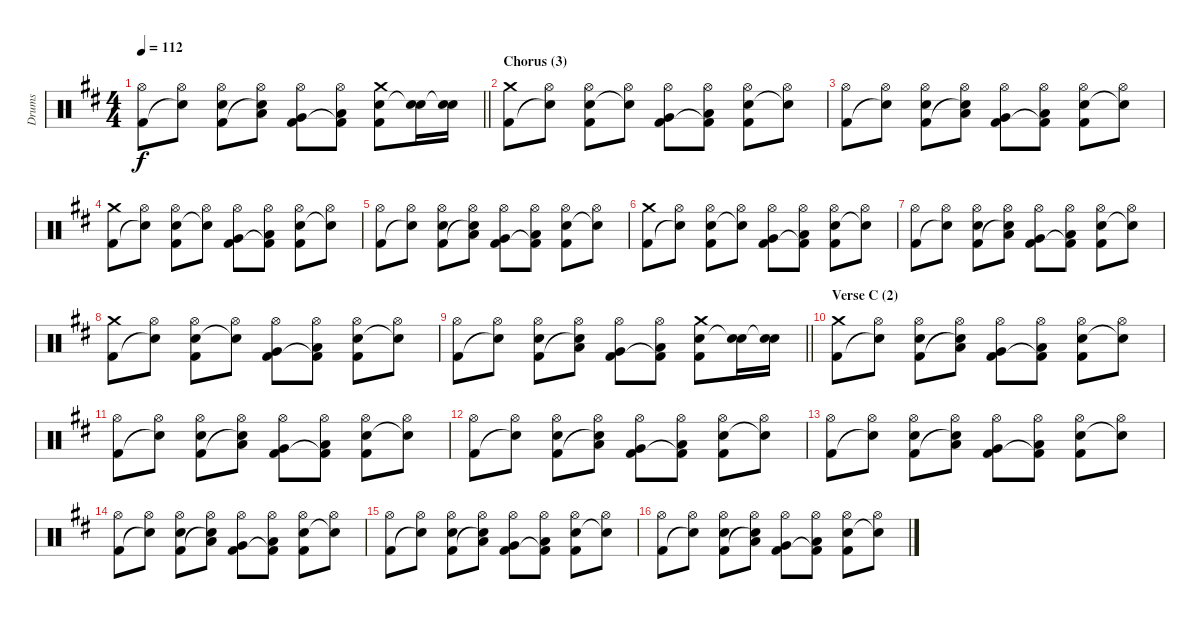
\track ("Drums" "Drums") {instrument percussion}
\staff {score}
\articulation defaults
\ts (4 4)
\tempo 112
\clef neutral
\barLineRight lightlight
\ks bminor
("Hi-Hat (open)" "Kick (hit) 2").8{dy f} ("Hi-Hat (open)" "Snare (hit)"{t}).8 ("Hi-Hat (open)" "Electric Snare (hit)" "Kick (hit) 2").8 ("Hi-Hat (open)" "Low Tom (hit)" "Snare (hit)"{t}).8 ("Hi-Hat (open)" "Very Low Tom (hit)" "Kick (hit) 2").8 ("Hi-Hat (open)" "Low Floor Tom (hit)" "Kick (hit) 2"{t}).8 ("Crash medium (hit)" "Electric Snare (hit)" "Kick (hit) 2").8 ("Electric Snare (hit)" "Snare (hit)"{t}).16 ("Electric Snare (hit)" "Snare (hit)"{t}).16 |
\section ("" "Chorus (3)")
("Crash medium (hit)" "Kick (hit) 2").8 ("Hi-Hat (open)" "Snare (hit)"{t}).8 ("Hi-Hat (open)" "Electric Snare (hit)" "Kick (hit) 2").8 ("Hi-Hat (open)" "Snare (hit)"{t}).8 ("Hi-Hat (open)" "Very Low Tom (hit)" "Kick (hit) 2").8 ("Hi-Hat (open)" "Low Floor Tom (hit)" "Kick (hit) 2"{t}).8 ("Hi-Hat (open)" "Electric Snare (hit)" "Kick (hit) 2").8 ("Hi-Hat (open)" "Snare (hit)"{t}).8 |
("Hi-Hat (open)" "Kick (hit) 2").8 ("Hi-Hat (open)" "Snare (hit)"{t}).8 ("Hi-Hat (open)" "Electric Snare (hit)" "Kick (hit) 2").8 ("Hi-Hat (open)" "Low Tom (hit)" "Snare (hit)"{t}).8 ("Hi-Hat (open)" "Very Low Tom (hit)" "Kick (hit) 2").8 ("Hi-Hat (open)" "Low Floor Tom (hit)" "Kick (hit) 2"{t}).8 ("Hi-Hat (open)" "Electric Snare (hit)" "Kick (hit) 2").8 ("Hi-Hat (open)" "Snare (hit)"{t}).8 |
("Crash medium (hit)" "Kick (hit) 2").8 ("Hi-Hat (open)" "Snare (hit)"{t}).8 ("Hi-Hat (open)" "Electric Snare (hit)" "Kick (hit) 2").8 ("Hi-Hat (open)" "Snare (hit)"{t}).8 ("Hi-Hat (open)" "Very Low Tom (hit)" "Kick (hit) 2").8 ("Hi-Hat (open)" "Low Floor Tom (hit)" "Kick (hit) 2"{t}).8 ("Hi-Hat (open)" "Electric Snare (hit)" "Kick (hit) 2").8 ("Hi-Hat (open)" "Snare (hit)"{t}).8 |
("Hi-Hat (open)" "Kick (hit) 2").8 ("Hi-Hat (open)" "Snare (hit)"{t}).8 ("Hi-Hat (open)" "Electric Snare (hit)" "Kick (hit) 2").8 ("Hi-Hat (open)" "Low Tom (hit)" "Snare (hit)"{t}).8 ("Hi-Hat (open)" "Very Low Tom (hit)" "Kick (hit) 2").8 ("Hi-Hat (open)" "Low Floor Tom (hit)" "Kick (hit) 2"{t}).8 ("Hi-Hat (open)" "Electric Snare (hit)" "Kick (hit) 2").8 ("Hi-Hat (open)" "Snare (hit)"{t}).8 |
("Crash medium (hit)" "Kick (hit) 2").8 ("Hi-Hat (open)" "Snare (hit)"{t}).8 ("Hi-Hat (open)" "Electric Snare (hit)" "Kick (hit) 2").8 ("Hi-Hat (open)" "Snare (hit)"{t}).8 ("Hi-Hat (open)" "Very Low Tom (hit)" "Kick (hit) 2").8 ("Hi-Hat (open)" "Low Floor Tom (hit)" "Kick (hit) 2"{t}).8 ("Hi-Hat (open)" "Electric Snare (hit)" "Kick (hit) 2").8 ("Hi-Hat (open)" "Snare (hit)"{t}).8 |
("Hi-Hat (open)" "Kick (hit) 2").8 ("Hi-Hat (open)" "Snare (hit)"{t}).8 ("Hi-Hat (open)" "Electric Snare (hit)" "Kick (hit) 2").8 ("Hi-Hat (open)" "Low Tom (hit)" "Snare (hit)"{t}).8 ("Hi-Hat (open)" "Very Low Tom (hit)" "Kick (hit) 2").8 ("Hi-Hat (open)" "Low Floor Tom (hit)" "Kick (hit) 2"{t}).8 ("Hi-Hat (open)" "Electric Snare (hit)" "Kick (hit) 2").8 ("Hi-Hat (open)" "Snare (hit)"{t}).8 |
("Crash medium (hit)" "Kick (hit) 2").8 ("Hi-Hat (open)" "Snare (hit)"{t}).8 ("Hi-Hat (open)" "Electric Snare (hit)" "Kick (hit) 2").8 ("Hi-Hat (open)" "Snare (hit)"{t}).8 ("Hi-Hat (open)" "Very Low Tom (hit)" "Kick (hit) 2").8 ("Hi-Hat (open)" "Low Floor Tom (hit)" "Kick (hit) 2"{t}).8 ("Hi-Hat (open)" "Electric Snare (hit)" "Kick (hit) 2").8 ("Hi-Hat (open)" "Snare (hit)"{t}).8 |
\barLineRight lightlight
("Hi-Hat (open)" "Kick (hit) 2").8 ("Hi-Hat (open)" "Snare (hit)"{t}).8 ("Hi-Hat (open)" "Electric Snare (hit)" "Kick (hit) 2").8 ("Hi-Hat (open)" "Low Tom (hit)" "Snare (hit)"{t}).8 ("Hi-Hat (open)" "Very Low Tom (hit)" "Kick (hit) 2").8 ("Hi-Hat (open)" "Low Floor Tom (hit)" "Kick (hit) 2"{t}).8 ("Crash medium (hit)" "Electric Snare (hit)" "Kick (hit) 2").8 ("Electric Snare (hit)" "Snare (hit)"{t}).16 ("Electric Snare (hit)" "Snare (hit)"{t}).16 |
\section ("" "Verse C (2)")
("Crash medium (hit)" "Kick (hit) 2").8 ("Hi-Hat (open)" "Snare (hit)"{t}).8 ("Hi-Hat (open)" "Electric Snare (hit)" "Kick (hit) 2").8 ("Hi-Hat (open)" "Low Tom (hit)" "Snare (hit)"{t}).8 ("Hi-Hat (open)" "Very Low Tom (hit)" "Kick (hit) 2").8 ("Hi-Hat (open)" "Low Floor Tom (hit)" "Kick (hit) 2"{t}).8 ("Hi-Hat (open)" "Electric Snare (hit)" "Kick (hit) 2").8 ("Hi-Hat (open)" "Snare (hit)"{t}).8 |
("Hi-Hat (open)" "Kick (hit) 2").8 ("Hi-Hat (open)" "Snare (hit)"{t}).8 ("Hi-Hat (open)" "Electric Snare (hit)" "Kick (hit) 2").8 ("Hi-Hat (open)" "Low Tom (hit)" "Snare (hit)"{t}).8 ("Hi-Hat (open)" "Very Low Tom (hit)" "Kick (hit) 2").8 ("Hi-Hat (open)" "Low Floor Tom (hit)" "Kick (hit) 2"{t}).8 ("Hi-Hat (open)" "Electric Snare (hit)" "Kick (hit) 2").8 ("Hi-Hat (open)" "Snare (hit)"{t}).8 |
("Hi-Hat (open)" "Kick (hit) 2").8 ("Hi-Hat (open)" "Snare (hit)"{t}).8 ("Hi-Hat (open)" "Electric Snare (hit)" "Kick (hit) 2").8 ("Hi-Hat (open)" "Low Tom (hit)" "Snare (hit)"{t}).8 ("Hi-Hat (open)" "Very Low Tom (hit)" "Kick (hit) 2").8 ("Hi-Hat (open)" "Low Floor Tom (hit)" "Kick (hit) 2"{t}).8 ("Hi-Hat (open)" "Electric Snare (hit)" "Kick (hit) 2").8 ("Hi-Hat (open)" "Snare (hit)"{t}).8 |
("Hi-Hat (open)" "Kick (hit) 2").8 ("Hi-Hat (open)" "Snare (hit)"{t}).8 ("Hi-Hat (open)" "Electric Snare (hit)" "Kick (hit) 2").8 ("Hi-Hat (open)" "Low Tom (hit)" "Snare (hit)"{t}).8 ("Hi-Hat (open)" "Very Low Tom (hit)" "Kick (hit) 2").8 ("Hi-Hat (open)" "Low Floor Tom (hit)" "Kick (hit) 2"{t}).8 ("Hi-Hat (open)" "Electric Snare (hit)" "Kick (hit) 2").8 ("Hi-Hat (open)" "Snare (hit)"{t}).8 |
("Hi-Hat (open)" "Kick (hit) 2").8 ("Hi-Hat (open)" "Snare (hit)"{t}).8 ("Hi-Hat (open)" "Electric Snare (hit)" "Kick (hit) 2").8 ("Hi-Hat (open)" "Low Tom (hit)" "Snare (hit)"{t}).8 ("Hi-Hat (open)" "Very Low Tom (hit)" "Kick (hit) 2").8 ("Hi-Hat (open)" "Low Floor Tom (hit)" "Kick (hit) 2"{t}).8 ("Hi-Hat (open)" "Electric Snare (hit)" "Kick (hit) 2").8 ("Hi-Hat (open)" "Snare (hit)"{t}).8 |
("Hi-Hat (open)" "Kick (hit) 2").8 ("Hi-Hat (open)" "Snare (hit)"{t}).8 ("Hi-Hat (open)" "Electric Snare (hit)" "Kick (hit) 2").8 ("Hi-Hat (open)" "Low Tom (hit)" "Snare (hit)"{t}).8 ("Hi-Hat (open)" "Very Low Tom (hit)" "Kick (hit) 2").8 ("Hi-Hat (open)" "Low Floor Tom (hit)" "Kick (hit) 2"{t}).8 ("Hi-Hat (open)" "Electric Snare (hit)" "Kick (hit) 2").8 ("Hi-Hat (open)" "Snare (hit)"{t}).8 |
("Hi-Hat (open)" "Kick (hit) 2").8 ("Hi-Hat (open)" "Snare (hit)"{t}).8 ("Hi-Hat (open)" "Electric Snare (hit)" "Kick (hit) 2").8 ("Hi-Hat (open)" "Low Tom (hit)" "Snare (hit)"{t}).8 ("Hi-Hat (open)" "Very Low Tom (hit)" "Kick (hit) 2").8 ("Hi-Hat (open)" "Low Floor Tom (hit)" "Kick (hit) 2"{t}).8 ("Hi-Hat (open)" "Electric Snare (hit)" "Kick (hit) 2").8 ("Hi-Hat (open)" "Snare (hit)"{t}).8
